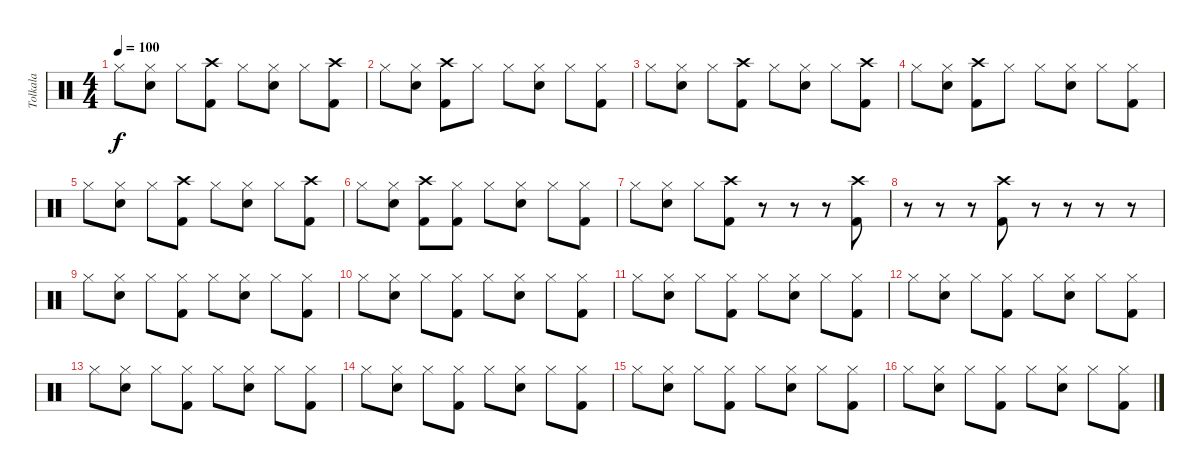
\track ("Tolkala" "Tolkala") {instrument percussion}
\staff {score}
\articulation defaults
\ts (4 4)
\tempo 100
\clef neutral
\ks c "Hi-Hat (closed)".8{dy f}
("Hi-Hat (closed)" "Snare (hit) 2").8 "Hi-Hat (closed)".8 ("Crash high (hit)" "Kick (hit) 2").8 "Hi-Hat (closed)".8 ("Hi-Hat (closed)" "Snare (hit) 2").8 "Hi-Hat (closed)".8 ("Crash high (hit)" "Kick (hit) 2").8 |
"Hi-Hat (closed)".8 ("Hi-Hat (closed)" "Snare (hit) 2").8 ("Crash high (hit)" "Kick (hit) 2").8 "Hi-Hat (closed)".8 "Hi-Hat (closed)".8 ("Hi-Hat (closed)" "Snare (hit) 2").8 "Hi-Hat (closed)".8 ("Hi-Hat (closed)" "Kick (hit) 2").8 |
"Hi-Hat (closed)".8 ("Hi-Hat (closed)" "Snare (hit) 2").8 "Hi-Hat (closed)".8 ("Crash high (hit)" "Kick (hit) 2").8 "Hi-Hat (closed)".8 ("Hi-Hat (closed)" "Snare (hit) 2").8 "Hi-Hat (closed)".8 ("Crash high (hit)" "Kick (hit) 2").8 |
"Hi-Hat (closed)".8 ("Hi-Hat (closed)" "Snare (hit) 2").8 ("Crash high (hit)" "Kick (hit) 2").8 "Hi-Hat (closed)".8 "Hi-Hat (closed)".8 ("Hi-Hat (closed)" "Snare (hit) 2").8 "Hi-Hat (closed)".8 ("Hi-Hat (closed)" "Kick (hit) 2").8 |
"Hi-Hat (closed)".8 ("Hi-Hat (closed)" "Snare (hit) 2").8 "Hi-Hat (closed)".8 ("Crash high (hit)" "Kick (hit) 2").8 "Hi-Hat (closed)".8 ("Hi-Hat (closed)" "Snare (hit) 2").8 "Hi-Hat (closed)".8 ("Crash high (hit)" "Kick (hit) 2").8 |
"Hi-Hat (closed)".8 ("Hi-Hat (closed)" "Snare (hit) 2").8 ("Crash high (hit)" "Kick (hit) 2").8 ("Hi-Hat (closed)" "Kick (hit) 2").8 "Hi-Hat (closed)".8 ("Hi-Hat (closed)" "Snare (hit) 2").8 "Hi-Hat (closed)".8 ("Hi-Hat (closed)" "Kick (hit) 2").8 |
"Hi-Hat (closed)".8 ("Hi-Hat (closed)" "Snare (hit) 2").8 "Hi-Hat (closed)".8 ("Crash high (hit)" "Kick (hit) 2").8 r.8 r.8 r.8 ("Crash high (hit)" "Kick (hit) 2").8 |
r.8 r.8 r.8 ("Crash high (hit)" "Kick (hit) 2").8 r.8 r.8 r.8 r.8 |
"Hi-Hat (closed)".8 ("Hi-Hat (closed)" "Snare (hit) 2").8 "Hi-Hat (closed)".8 ("Hi-Hat (closed)" "Kick (hit) 2").8 "Hi-Hat (closed)".8 ("Hi-Hat (closed)" "Snare (hit) 2").8 "Hi-Hat (closed)".8 ("Hi-Hat (closed)" "Kick (hit) 2").8 |
"Hi-Hat (closed)".8 ("Hi-Hat (closed)" "Snare (hit) 2").8 "Hi-Hat (closed)".8 ("Hi-Hat (closed)" "Kick (hit) 2").8 "Hi-Hat (closed)".8 ("Hi-Hat (closed)" "Snare (hit) 2").8 "Hi-Hat (closed)".8 ("Hi-Hat (closed)" "Kick (hit) 2").8 |
"Hi-Hat (closed)".8 ("Hi-Hat (closed)" "Snare (hit) 2").8 "Hi-Hat (closed)".8 ("Hi-Hat (closed)" "Kick (hit) 2").8 "Hi-Hat (closed)".8 ("Hi-Hat (closed)" "Snare (hit) 2").8 "Hi-Hat (closed)".8 ("Hi-Hat (closed)" "Kick (hit) 2").8 |
"Hi-Hat (closed)".8 ("Hi-Hat (closed)" "Snare (hit) 2").8 "Hi-Hat (closed)".8 ("Hi-Hat (closed)" "Kick (hit) 2").8 "Hi-Hat (closed)".8 ("Hi-Hat (closed)" "Snare (hit) 2").8 "Hi-Hat (closed)".8 ("Hi-Hat (closed)" "Kick (hit) 2").8 |
"Hi-Hat (closed)".8 ("Hi-Hat (closed)" "Snare (hit) 2").8 "Hi-Hat (closed)".8 ("Hi-Hat (closed)" "Kick (hit) 2").8 "Hi-Hat (closed)".8 ("Hi-Hat (closed)" "Snare (hit) 2").8 "Hi-Hat (closed)".8 ("Hi-Hat (closed)" "Kick (hit) 2").8 |
"Hi-Hat (closed)".8 ("Hi-Hat (closed)" "Snare (hit) 2").8 "Hi-Hat (closed)".8 ("Hi-Hat (closed)" "Kick (hit) 2").8 "Hi-Hat (closed)".8 ("Hi-Hat (closed)" "Snare (hit) 2").8 "Hi-Hat (closed)".8 ("Hi-Hat (closed)" "Kick (hit) 2").8 |
"Hi-Hat (closed)".8 ("Hi-Hat (closed)" "Snare (hit) 2").8 "Hi-Hat (closed)".8 ("Hi-Hat (closed)" "Kick (hit) 2").8 "Hi-Hat (closed)".8 ("Hi-Hat (closed)" "Snare (hit) 2").8 "Hi-Hat (closed)".8 ("Hi-Hat (closed)" "Kick (hit) 2").8 |
"Hi-Hat (closed)".8 ("Hi-Hat (closed)" "Snare (hit) 2").8 "Hi-Hat (closed)".8 ("Hi-Hat (closed)" "Kick (hit) 2").8 "Hi-Hat (closed)".8 ("Hi-Hat (closed)" "Snare (hit) 2").8 "Hi-Hat (closed)".8 ("Hi-Hat (closed)" "Kick (hit) 2").8
